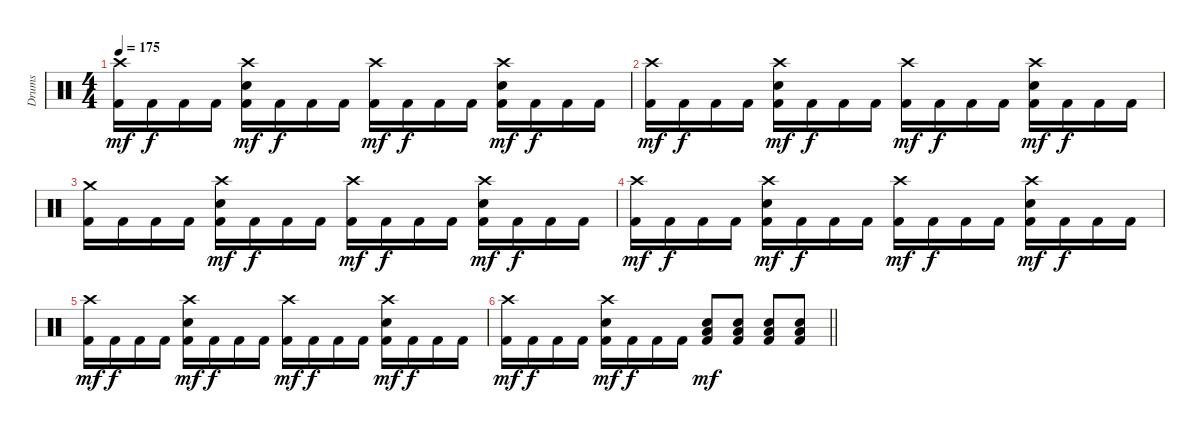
\track ("Drums" "Drums") {instrument percussion}
\staff {score}
\articulation defaults
\ts (4 4)
\tempo 175
\clef neutral
\ks c
("Crash high (hit)" "Kick (hit) 2").16{dy mf} "Kick (hit) 2".16{dy f} "Kick (hit) 2".16 "Kick (hit) 2".16 ("Crash high (hit)" "Electric Snare (hit)" "Kick (hit) 2").16{dy mf} "Kick (hit) 2".16{dy f} "Kick (hit) 2".16 "Kick (hit) 2".16 ("Crash high (hit)" "Kick (hit) 2").16{dy mf} "Kick (hit) 2".16{dy f} "Kick (hit) 2".16 "Kick (hit) 2".16 ("Crash high (hit)" "Electric Snare (hit)" "Kick (hit) 2").16{dy mf} "Kick (hit) 2".16{dy f} "Kick (hit) 2".16 "Kick (hit) 2".16 |
("Crash high (hit)" "Kick (hit) 2").16{dy mf} "Kick (hit) 2".16{dy f} "Kick (hit) 2".16 "Kick (hit) 2".16 ("Crash high (hit)" "Electric Snare (hit)" "Kick (hit) 2").16{dy mf} "Kick (hit) 2".16{dy f} "Kick (hit) 2".16 "Kick (hit) 2".16 ("Crash high (hit)" "Kick (hit) 2").16{dy mf} "Kick (hit) 2".16{dy f} "Kick (hit) 2".16 "Kick (hit) 2".16 ("Crash high (hit)" "Electric Snare (hit)" "Kick (hit) 2").16{dy mf} "Kick (hit) 2".16{dy f} "Kick (hit) 2".16 "Kick (hit) 2".16 |
("Crash medium (hit)" "Kick (hit) 2").16 "Kick (hit) 2".16 "Kick (hit) 2".16 "Kick (hit) 2".16 ("Crash high (hit)" "Electric Snare (hit)" "Kick (hit) 2").16{dy mf} "Kick (hit) 2".16{dy f} "Kick (hit) 2".16 "Kick (hit) 2".16 ("Crash high (hit)" "Kick (hit) 2").16{dy mf} "Kick (hit) 2".16{dy f} "Kick (hit) 2".16 "Kick (hit) 2".16 ("Crash high (hit)" "Electric Snare (hit)" "Kick (hit) 2").16{dy mf} "Kick (hit) 2".16{dy f} "Kick (hit) 2".16 "Kick (hit) 2".16 |
("Crash high (hit)" "Kick (hit) 2").16{dy mf} "Kick (hit) 2".16{dy f} "Kick (hit) 2".16 "Kick (hit) 2".16 ("Crash high (hit)" "Electric Snare (hit)" "Kick (hit) 2").16{dy mf} "Kick (hit) 2".16{dy f} "Kick (hit) 2".16 "Kick (hit) 2".16 ("Crash high (hit)" "Kick (hit) 2").16{dy mf} "Kick (hit) 2".16{dy f} "Kick (hit) 2".16 "Kick (hit) 2".16 ("Crash high (hit)" "Electric Snare (hit)" "Kick (hit) 2").16{dy mf} "Kick (hit) 2".16{dy f} "Kick (hit) 2".16 "Kick (hit) 2".16 |
("Crash high (hit)" "Kick (hit) 2").16{dy mf} "Kick (hit) 2".16{dy f} "Kick (hit) 2".16 "Kick (hit) 2".16 ("Crash high (hit)" "Electric Snare (hit)" "Kick (hit) 2").16{dy mf} "Kick (hit) 2".16{dy f} "Kick (hit) 2".16 "Kick (hit) 2".16 ("Crash high (hit)" "Kick (hit) 2").16{dy mf} "Kick (hit) 2".16{dy f} "Kick (hit) 2".16 "Kick (hit) 2".16 ("Crash high (hit)" "Electric Snare (hit)" "Kick (hit) 2").16{dy mf} "Kick (hit) 2".16{dy f} "Kick (hit) 2".16 "Kick (hit) 2".16 |
\barLineRight lightlight
("Crash high (hit)" "Kick (hit) 2").16{dy mf} "Kick (hit) 2".16{dy f} "Kick (hit) 2".16 "Kick (hit) 2".16 ("Crash high (hit)" "Electric Snare (hit)" "Kick (hit) 2").16{dy mf} "Kick (hit) 2".16{dy f} "Kick (hit) 2".16 "Kick (hit) 2".16 ("Low Tom (hit)" "Electric Snare (hit)" "Kick (hit) 2").8{dy mf} ("Low Tom (hit)" "Electric Snare (hit)" "Kick (hit) 2").8 ("Low Tom (hit)" "Electric Snare (hit)" "Kick (hit) 2").8 ("Low Tom (hit)" "Electric Snare (hit)" "Kick (hit) 2").8
